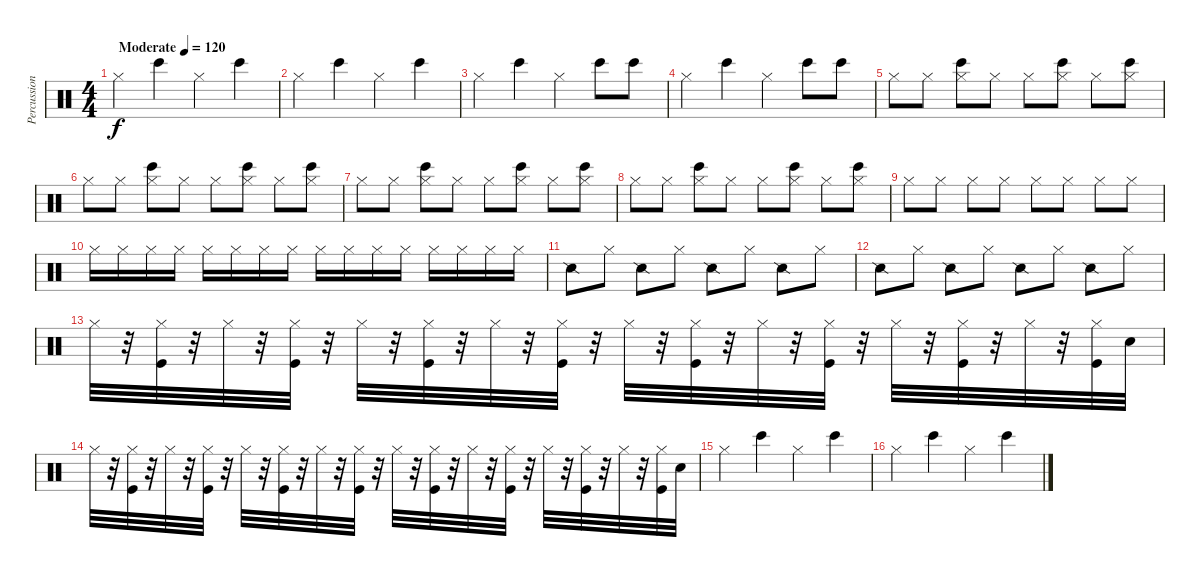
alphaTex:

\track ("Percussion" "Percussion") {instrument percussion}
\staff {score}
\articulation defaults
\ts (4 4)
\tempo (120 "Moderate")
\clef neutral
\ks c "Hi-Hat (closed)".4{dy f} "Bongo High (hit)".4 "Hi-Hat (closed)".4 "Bongo High (hit)".4
|
"Hi-Hat (closed)".4 "Bongo High (hit)".4 "Hi-Hat (closed)".4 "Bongo High (hit)".4 |
"Hi-Hat (closed)".4 "Bongo High (hit)".4 "Hi-Hat (closed)".4 "Bongo High (hit)".8 "Bongo High (hit)".8 |
"Hi-Hat (closed)".4 "Bongo High (hit)".4 "Hi-Hat (closed)".4 "Bongo High (hit)".8 "Bongo High (hit)".8 |
"Hi-Hat (closed)".8 "Hi-Hat (closed)".8 ("Bongo High (hit)" "Hi-Hat (closed)").8 "Hi-Hat (closed)".8 "Hi-Hat (closed)".8 ("Bongo High (hit)" "Hi-Hat (closed)").8 "Hi-Hat (closed)".8 ("Bongo High (hit)" "Hi-Hat (closed)").8 |
"Hi-Hat (closed)".8 "Hi-Hat (closed)".8 ("Bongo High (hit)" "Hi-Hat (closed)").8 "Hi-Hat (closed)".8 "Hi-Hat (closed)".8 ("Bongo High (hit)" "Hi-Hat (closed)").8 "Hi-Hat (closed)".8 ("Bongo High (hit)" "Hi-Hat (closed)").8 |
"Hi-Hat (closed)".8 "Hi-Hat (closed)".8 ("Bongo High (hit)" "Hi-Hat (closed)").8 "Hi-Hat (closed)".8 "Hi-Hat (closed)".8 ("Bongo High (hit)" "Hi-Hat (closed)").8 "Hi-Hat (closed)".8 ("Bongo High (hit)" "Hi-Hat (closed)").8 |
"Hi-Hat (closed)".8 "Hi-Hat (closed)".8 ("Bongo High (hit)" "Hi-Hat (closed)").8 "Hi-Hat (closed)".8 "Hi-Hat (closed)".8 ("Bongo High (hit)" "Hi-Hat (closed)").8 "Hi-Hat (closed)".8 ("Bongo High (hit)" "Hi-Hat (closed)").8 |
"Hi-Hat (closed)".8 "Hi-Hat (closed)".8 "Hi-Hat (closed)".8 "Hi-Hat (closed)".8 "Hi-Hat (closed)".8 "Hi-Hat (closed)".8 "Hi-Hat (closed)".8 "Hi-Hat (closed)".8 |
"Hi-Hat (closed)".16 "Hi-Hat (closed)".16 "Hi-Hat (closed)".16 "Hi-Hat (closed)".16 "Hi-Hat (closed)".16 "Hi-Hat (closed)".16 "Hi-Hat (closed)".16 "Hi-Hat (closed)".16 "Hi-Hat (closed)".16 "Hi-Hat (closed)".16 "Hi-Hat (closed)".16 "Hi-Hat (closed)".16 "Hi-Hat (closed)".16 "Hi-Hat (closed)".16 "Hi-Hat (closed)".16 "Hi-Hat (closed)".16 |
"Snare (side stick) 2".8 "Hi-Hat (closed)".8 "Snare (side stick) 2".8 "Hi-Hat (closed)".8 "Snare (side stick) 2".8 "Hi-Hat (closed)".8 "Snare (side stick) 2".8 "Hi-Hat (closed)".8 |
"Snare (side stick) 2".8 "Hi-Hat (closed)".8 "Snare (side stick) 2".8 "Hi-Hat (closed)".8 "Snare (side stick) 2".8 "Hi-Hat (closed)".8 "Snare (side stick) 2".8 "Hi-Hat (closed)".8 |
"Hi-Hat (closed)".32 r.32 ("Kick (hit)" "Hi-Hat (closed)").32 r.32 "Hi-Hat (closed)".32 r.32 ("Kick (hit)" "Hi-Hat (closed)").32 r.32 "Hi-Hat (closed)".32 r.32 ("Kick (hit)" "Hi-Hat (closed)").32 r.32 "Hi-Hat (closed)".32 r.32 ("Kick (hit)" "Hi-Hat (closed)").32 r.32 "Hi-Hat (closed)".32 r.32 ("Kick (hit)" "Hi-Hat (closed)").32 r.32 "Hi-Hat (closed)".32 r.32 ("Kick (hit)" "Hi-Hat (closed)").32 r.32 "Hi-Hat (closed)".32 r.32 ("Kick (hit)" "Hi-Hat (closed)").32 r.32 "Hi-Hat (closed)".32 r.32 ("Kick (hit)" "Hi-Hat (closed)").32 "Snare (hit)".32 |
"Hi-Hat (closed)".32 r.32 ("Kick (hit)" "Hi-Hat (closed)").32 r.32 "Hi-Hat (closed)".32 r.32 ("Kick (hit)" "Hi-Hat (closed)").32 r.32 "Hi-Hat (closed)".32 r.32 ("Kick (hit)" "Hi-Hat (closed)").32 r.32 "Hi-Hat (closed)".32 r.32 ("Kick (hit)" "Hi-Hat (closed)").32 r.32 "Hi-Hat (closed)".32 r.32 ("Kick (hit)" "Hi-Hat (closed)").32 r.32 "Hi-Hat (closed)".32 r.32 ("Kick (hit)" "Hi-Hat (closed)").32 r.32 "Hi-Hat (closed)".32 r.32 ("Kick (hit)" "Hi-Hat (closed)").32 r.32 "Hi-Hat (closed)".32 r.32 ("Kick (hit)" "Hi-Hat (closed)").32 "Snare (hit)".32 |
"Hi-Hat (closed)".4 "Bongo High (hit)".4 "Hi-Hat (closed)".4 "Bongo High (hit)".4 |
"Hi-Hat (closed)".4 "Bongo High (hit)".4 "Hi-Hat (closed)".4 "Bongo High (hit)".4
